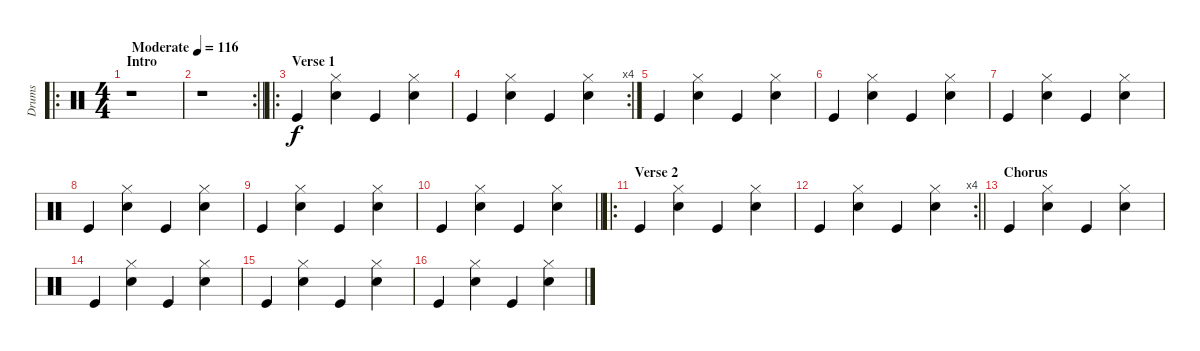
\track ("Drums" "Drums") {instrument percussion}
\staff {score}
\articulation defaults
\ro
\ts (4 4)
\section ("" "Intro")
\tempo (116 "Moderate")
\clef neutral
\ks c
r.1{dy f} |
\rc 2
\barLineRight lightlight
r.1 |
\ro
\section ("" "Verse 1")
"Kick (hit)".4 ("Hi-Hat (closed)" "Snare (hit) 2").4 "Kick (hit)".4 ("Hi-Hat (closed)" "Snare (hit) 2").4 |
\rc 4 "Kick (hit)".4
("Hi-Hat (closed)" "Snare (hit) 2").4 "Kick (hit)".4 ("Hi-Hat (closed)" "Snare (hit) 2").4 |
"Kick (hit)".4 ("Hi-Hat (closed)" "Snare (hit) 2").4 "Kick (hit)".4 ("Hi-Hat (closed)" "Snare (hit) 2").4 |
"Kick (hit)".4 ("Hi-Hat (closed)" "Snare (hit) 2").4 "Kick (hit)".4 ("Hi-Hat (closed)" "Snare (hit) 2").4 |
"Kick (hit)".4 ("Hi-Hat (closed)" "Snare (hit) 2").4 "Kick (hit)".4 ("Hi-Hat (closed)" "Snare (hit) 2").4 |
"Kick (hit)".4 ("Hi-Hat (closed)" "Snare (hit) 2").4 "Kick (hit)".4 ("Hi-Hat (closed)" "Snare (hit) 2").4 |
"Kick (hit)".4 ("Hi-Hat (closed)" "Snare (hit) 2").4 "Kick (hit)".4 ("Hi-Hat (closed)" "Snare (hit) 2").4 |
\barLineRight lightlight "Kick (hit)".4
("Hi-Hat (closed)" "Snare (hit) 2").4 "Kick (hit)".4 ("Hi-Hat (closed)" "Snare (hit) 2").4 |
\ro
\section ("" "Verse 2")
"Kick (hit)".4 ("Hi-Hat (closed)" "Snare (hit) 2").4 "Kick (hit)".4 ("Hi-Hat (closed)" "Snare (hit) 2").4 |
\rc 4
\barLineRight lightlight "Kick (hit)".4
("Hi-Hat (closed)" "Snare (hit) 2").4 "Kick (hit)".4 ("Hi-Hat (closed)" "Snare (hit) 2").4 |
\section ("" "Chorus")
"Kick (hit)".4 ("Hi-Hat (closed)" "Snare (hit) 2").4 "Kick (hit)".4 ("Hi-Hat (closed)" "Snare (hit) 2").4 |
"Kick (hit)".4 ("Hi-Hat (closed)" "Snare (hit) 2").4 "Kick (hit)".4 ("Hi-Hat (closed)" "Snare (hit) 2").4 |
"Kick (hit)".4 ("Hi-Hat (closed)" "Snare (hit) 2").4 "Kick (hit)".4 ("Hi-Hat (closed)" "Snare (hit) 2").4 |
"Kick (hit)".4 ("Hi-Hat (closed)" "Snare (hit) 2").4 "Kick (hit)".4 ("Hi-Hat (closed)" "Snare (hit) 2").4
